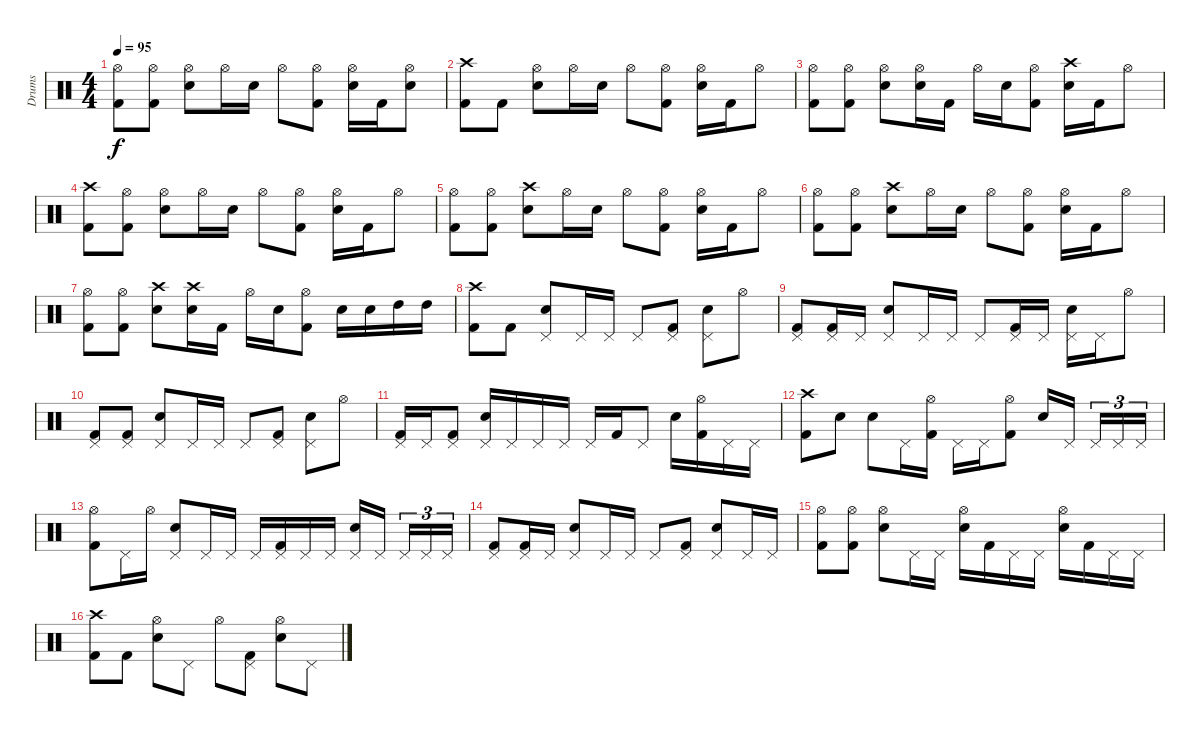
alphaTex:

\track ("Drums" "Drums") {instrument percussion}
\staff {score}
\articulation defaults
\ts (4 4)
\tempo 95
\clef neutral
\ks c
("Hi-Hat (open)" "Kick (hit) 2").8{dy f} ("Hi-Hat (open)" "Kick (hit) 2").8 ("Hi-Hat (open)" "Electric Snare (hit)").8 "Hi-Hat (open)".16 "Electric Snare (hit)".16 "Hi-Hat (open)".8 ("Hi-Hat (open)" "Kick (hit) 2").8 ("Hi-Hat (open)" "Electric Snare (hit)").16 "Kick (hit) 2".16 ("Hi-Hat (open)" "Electric Snare (hit)").8 |
("Crash high (hit)" "Kick (hit) 2").8 "Kick (hit) 2".8 ("Hi-Hat (open)" "Electric Snare (hit)").8 "Hi-Hat (open)".16 "Electric Snare (hit)".16 "Hi-Hat (open)".8 ("Hi-Hat (open)" "Kick (hit) 2").8 ("Hi-Hat (open)" "Electric Snare (hit)").16 "Kick (hit) 2".16 "Hi-Hat (open)".8 |
("Hi-Hat (open)" "Kick (hit) 2").8 ("Hi-Hat (open)" "Kick (hit) 2").8 ("Hi-Hat (open)" "Electric Snare (hit)").8 ("Hi-Hat (open)" "Electric Snare (hit)").16 "Kick (hit) 2".16 "Hi-Hat (open)".16 "Electric Snare (hit)".16 ("Hi-Hat (open)" "Kick (hit) 2").8 ("Crash high (hit)" "Electric Snare (hit)").16 "Kick (hit) 2".16 "Hi-Hat (open)".8 |
("Crash high (hit)" "Kick (hit) 2").8 ("Hi-Hat (open)" "Kick (hit) 2").8 ("Hi-Hat (open)" "Electric Snare (hit)").8 "Hi-Hat (open)".16 "Electric Snare (hit)".16 "Hi-Hat (open)".8 ("Hi-Hat (open)" "Kick (hit) 2").8 ("Hi-Hat (open)" "Electric Snare (hit)").16 "Kick (hit) 2".16 "Hi-Hat (open)".8 |
("Hi-Hat (open)" "Kick (hit) 2").8 ("Hi-Hat (open)" "Kick (hit) 2").8 ("Crash high (hit)" "Electric Snare (hit)").8 "Hi-Hat (open)".16 "Electric Snare (hit)".16 "Hi-Hat (open)".8 ("Hi-Hat (open)" "Kick (hit) 2").8 ("Hi-Hat (open)" "Electric Snare (hit)").16 "Kick (hit) 2".16 "Hi-Hat (open)".8 |
("Hi-Hat (open)" "Kick (hit) 2").8 ("Hi-Hat (open)" "Kick (hit) 2").8 ("Crash high (hit)" "Electric Snare (hit)").8 "Hi-Hat (open)".16 "Electric Snare (hit)".16 "Hi-Hat (open)".8 ("Hi-Hat (open)" "Kick (hit) 2").8 ("Hi-Hat (open)" "Electric Snare (hit)").16 "Kick (hit) 2".16 "Hi-Hat (open)".8 |
("Hi-Hat (open)" "Kick (hit) 2").8 ("Hi-Hat (open)" "Kick (hit) 2").8 ("Crash high (hit)" "Electric Snare (hit)").8 ("Crash high (hit)" "Electric Snare (hit)").16 "Kick (hit) 2".16 "Hi-Hat (open)".16 "Electric Snare (hit)".16 ("Hi-Hat (open)" "Kick (hit) 2").8 "Electric Snare (hit)".16 "Electric Snare (hit)".16 "High Tom (hit)".16 "High Tom (hit)".16 |
("Crash high (hit)" "Kick (hit) 2").8 "Kick (hit) 2".8 ("Pedal Hi-Hat (hit)" "Electric Snare (hit)").8 "Pedal Hi-Hat (hit)".16 "Pedal Hi-Hat (hit)".16 "Pedal Hi-Hat (hit)".8 ("Pedal Hi-Hat (hit)" "Kick (hit) 2").8 ("Pedal Hi-Hat (hit)" "Electric Snare (hit)").8 "Hi-Hat (open)".8 |
("Pedal Hi-Hat (hit)" "Kick (hit) 2").8 ("Pedal Hi-Hat (hit)" "Kick (hit) 2").16 "Pedal Hi-Hat (hit)".16 ("Pedal Hi-Hat (hit)" "Electric Snare (hit)").8 "Pedal Hi-Hat (hit)".16 "Pedal Hi-Hat (hit)".16 "Pedal Hi-Hat (hit)".8 ("Pedal Hi-Hat (hit)" "Kick (hit) 2").16 "Pedal Hi-Hat (hit)".16 ("Pedal Hi-Hat (hit)" "Electric Snare (hit)").16 "Pedal Hi-Hat (hit)".16 "Hi-Hat (open)".8 |
("Pedal Hi-Hat (hit)" "Kick (hit) 2").8 ("Pedal Hi-Hat (hit)" "Kick (hit) 2").8 ("Pedal Hi-Hat (hit)" "Electric Snare (hit)").8 "Pedal Hi-Hat (hit)".16 "Pedal Hi-Hat (hit)".16 "Pedal Hi-Hat (hit)".8 ("Pedal Hi-Hat (hit)" "Kick (hit) 2").8 ("Pedal Hi-Hat (hit)" "Electric Snare (hit)").8 "Hi-Hat (open)".8 |
("Pedal Hi-Hat (hit)" "Kick (hit) 2").16 "Pedal Hi-Hat (hit)".16 ("Pedal Hi-Hat (hit)" "Kick (hit) 2").8 ("Pedal Hi-Hat (hit)" "Electric Snare (hit)").16 "Pedal Hi-Hat (hit)".16 "Pedal Hi-Hat (hit)".16 "Pedal Hi-Hat (hit)".16 "Pedal Hi-Hat (hit)".16 "Kick (hit) 2".16 "Pedal Hi-Hat (hit)".8 "Electric Snare (hit)".16 ("Hi-Hat (open)" "Kick (hit) 2").16 "Pedal Hi-Hat (hit)".16 "Pedal Hi-Hat (hit)".16 |
("Crash high (hit)" "Kick (hit) 2").8 "Electric Snare (hit)".8 "Electric Snare (hit)".8 "Pedal Hi-Hat (hit)".16 ("Hi-Hat (open)" "Kick (hit) 2").16 "Pedal Hi-Hat (hit)".16 "Pedal Hi-Hat (hit)".16 ("Hi-Hat (open)" "Kick (hit) 2").8 "Electric Snare (hit)".16 "Pedal Hi-Hat (hit)".16{beam splitsecondary} "Pedal Hi-Hat (hit)".16{tu (3 2)} "Pedal Hi-Hat (hit)".16{tu (3 2)} "Pedal Hi-Hat (hit)".16{tu (3 2)} |
("Hi-Hat (open)" "Kick (hit) 2").8 "Pedal Hi-Hat (hit)".16 "Hi-Hat (open)".16 ("Pedal Hi-Hat (hit)" "Electric Snare (hit)").8 "Pedal Hi-Hat (hit)".16 "Pedal Hi-Hat (hit)".16 "Pedal Hi-Hat (hit)".16 ("Pedal Hi-Hat (hit)" "Kick (hit) 2").16 "Pedal Hi-Hat (hit)".16 "Pedal Hi-Hat (hit)".16 ("Pedal Hi-Hat (hit)" "Electric Snare (hit)").16 "Pedal Hi-Hat (hit)".16{beam splitsecondary} "Pedal Hi-Hat (hit)".16{tu (3 2)} "Pedal Hi-Hat (hit)".16{tu (3 2)} "Pedal Hi-Hat (hit)".16{tu (3 2)} |
("Pedal Hi-Hat (hit)" "Kick (hit) 2").8 ("Pedal Hi-Hat (hit)" "Kick (hit) 2").16 "Pedal Hi-Hat (hit)".16 ("Pedal Hi-Hat (hit)" "Electric Snare (hit)").8 "Pedal Hi-Hat (hit)".16 "Pedal Hi-Hat (hit)".16 "Pedal Hi-Hat (hit)".8 ("Pedal Hi-Hat (hit)" "Kick (hit) 2").8 ("Pedal Hi-Hat (hit)" "Electric Snare (hit)").8 "Pedal Hi-Hat (hit)".16 "Pedal Hi-Hat (hit)".16 |
("Hi-Hat (open)" "Kick (hit) 2").8 ("Hi-Hat (open)" "Kick (hit) 2").8 ("Hi-Hat (open)" "Electric Snare (hit)").8 "Pedal Hi-Hat (hit)".16 "Pedal Hi-Hat (hit)".16 ("Hi-Hat (open)" "Electric Snare (hit)").16 "Kick (hit) 2".16 "Pedal Hi-Hat (hit)".16 "Pedal Hi-Hat (hit)".16 ("Hi-Hat (open)" "Electric Snare (hit)").16 "Kick (hit) 2".16 "Pedal Hi-Hat (hit)".16 "Pedal Hi-Hat (hit)".16 |
("Crash high (hit)" "Kick (hit) 2").8 "Kick (hit) 2".8 ("Hi-Hat (open)" "Electric Snare (hit)").8 "Pedal Hi-Hat (hit)".8 "Hi-Hat (open)".8 ("Pedal Hi-Hat (hit)" "Kick (hit) 2").8 ("Hi-Hat (open)" "Electric Snare (hit)").8 "Pedal Hi-Hat (hit)".8
